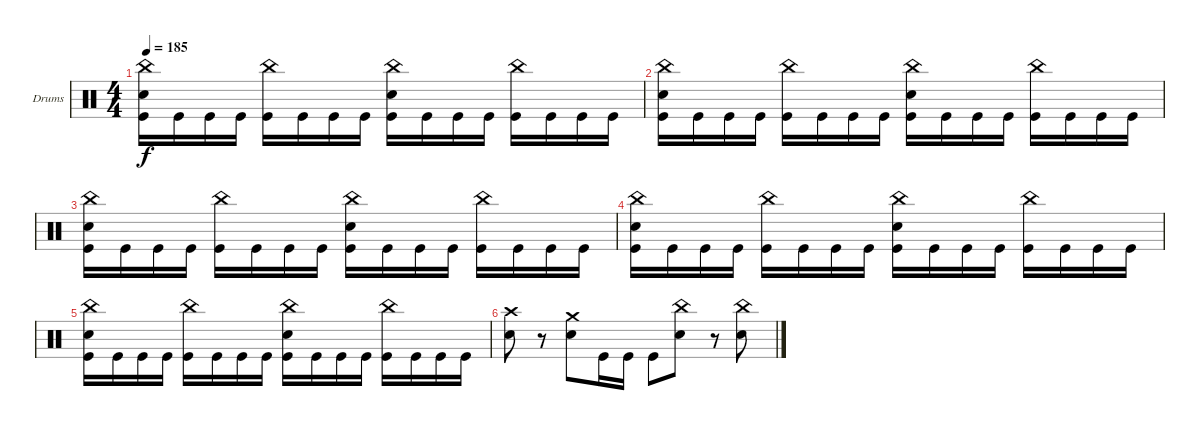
\bracketExtendMode groupsimilarinstruments
\firstSystemTrackNameOrientation horizontal
\otherSystemsTrackNameOrientation horizontal
\track ("Drumkit" "Drums") {instrument percussion}
\staff {score}
\articulation defaults
\ts (4 4)
\tempo 185
\clef neutral
\ks c
("China (hit)" "Snare (hit) 2" "Kick (hit)").16{dy f} "Kick (hit)".16 "Kick (hit)".16 "Kick (hit)".16 ("China (hit)" "Kick (hit)").16 "Kick (hit)".16 "Kick (hit)".16 "Kick (hit)".16 ("China (hit)" "Snare (hit) 2" "Kick (hit)").16 "Kick (hit)".16 "Kick (hit)".16 "Kick (hit)".16 ("China (hit)" "Kick (hit)").16 "Kick (hit)".16 "Kick (hit)".16 "Kick (hit)".16 |
("China (hit)" "Snare (hit) 2" "Kick (hit)").16 "Kick (hit)".16 "Kick (hit)".16 "Kick (hit)".16 ("China (hit)" "Kick (hit)").16 "Kick (hit)".16 "Kick (hit)".16 "Kick (hit)".16 ("China (hit)" "Snare (hit) 2" "Kick (hit)").16 "Kick (hit)".16 "Kick (hit)".16 "Kick (hit)".16 ("China (hit)" "Kick (hit)").16 "Kick (hit)".16 "Kick (hit)".16 "Kick (hit)".16 |
("China (hit)" "Snare (hit) 2" "Kick (hit)").16 "Kick (hit)".16 "Kick (hit)".16 "Kick (hit)".16 ("China (hit)" "Kick (hit)").16 "Kick (hit)".16 "Kick (hit)".16 "Kick (hit)".16 ("China (hit)" "Snare (hit) 2" "Kick (hit)").16 "Kick (hit)".16 "Kick (hit)".16 "Kick (hit)".16 ("China (hit)" "Kick (hit)").16 "Kick (hit)".16 "Kick (hit)".16 "Kick (hit)".16 |
("China (hit)" "Snare (hit) 2" "Kick (hit)").16 "Kick (hit)".16 "Kick (hit)".16 "Kick (hit)".16 ("China (hit)" "Kick (hit)").16 "Kick (hit)".16 "Kick (hit)".16 "Kick (hit)".16 ("China (hit)" "Snare (hit) 2" "Kick (hit)").16 "Kick (hit)".16 "Kick (hit)".16 "Kick (hit)".16 ("China (hit)" "Kick (hit)").16 "Kick (hit)".16 "Kick (hit)".16 "Kick (hit)".16 |
("China (hit)" "Snare (hit) 2" "Kick (hit)").16 "Kick (hit)".16 "Kick (hit)".16 "Kick (hit)".16 ("China (hit)" "Kick (hit)").16 "Kick (hit)".16 "Kick (hit)".16 "Kick (hit)".16 ("China (hit)" "Snare (hit) 2" "Kick (hit)").16 "Kick (hit)".16 "Kick (hit)".16 "Kick (hit)".16 ("China (hit)" "Kick (hit)").16 "Kick (hit)".16 "Kick (hit)".16 "Kick (hit)".16 |
("Crash high (hit)" "Snare (hit) 2").8 r.8 ("Crash medium (hit)" "Snare (hit) 2").8 "Kick (hit)".16 "Kick (hit)".16 "Kick (hit)".8 ("China (hit)" "Snare (hit) 2").8 r.8 ("China (hit)" "Snare (hit) 2").8
